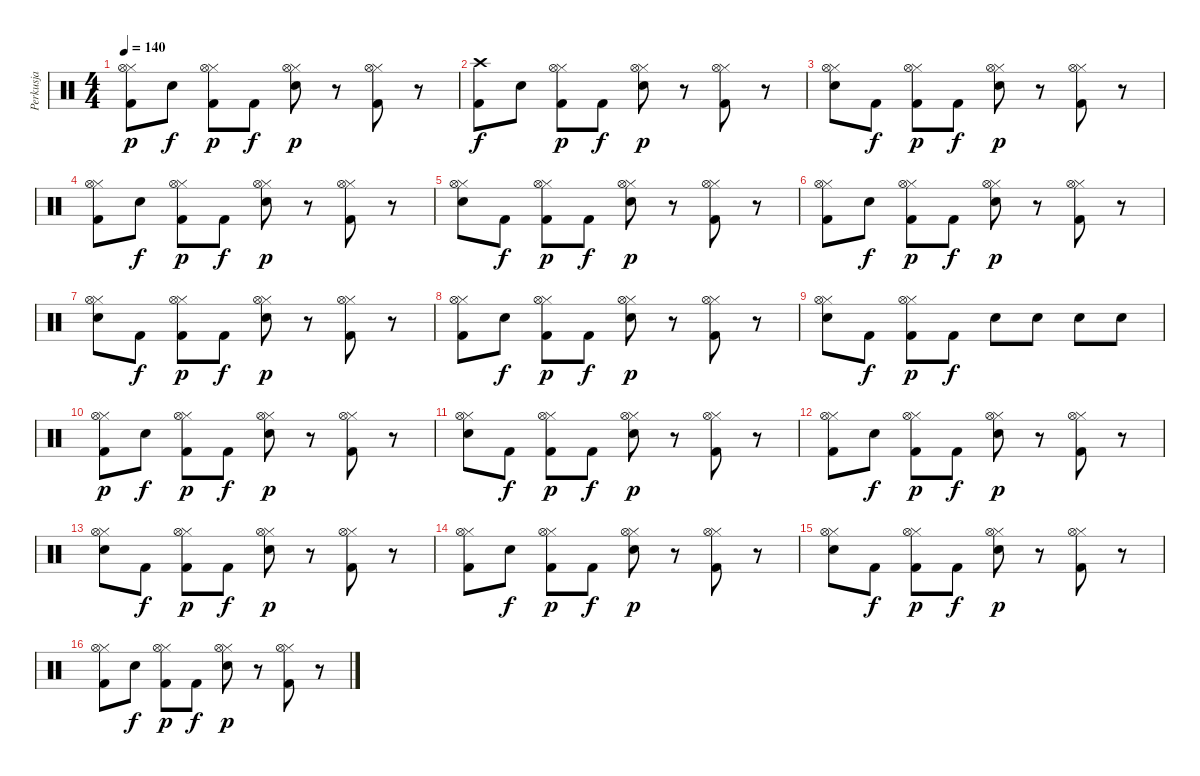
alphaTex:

\track ("Perkusja" "Perkusja") {instrument percussion}
\staff {score}
\articulation defaults
\ts (4 4)
\tempo 140
\clef neutral
\ks c
("Kick (hit) 2" "Hi-Hat (closed)" "Hi-Hat (open)").8{dy p} "Electric Snare (hit)".8{dy f} ("Kick (hit) 2" "Hi-Hat (closed)" "Hi-Hat (open)").8{dy p} "Kick (hit) 2".8{dy f} ("Electric Snare (hit)" "Hi-Hat (closed)" "Hi-Hat (open)").8{dy p} r.8 ("Kick (hit) 2" "Hi-Hat (closed)" "Hi-Hat (open)").8 r.8 |
("Kick (hit) 2" "Crash high (hit)").8{dy f} "Electric Snare (hit)".8 ("Kick (hit) 2" "Hi-Hat (closed)" "Hi-Hat (open)").8{dy p} "Kick (hit) 2".8{dy f} ("Electric Snare (hit)" "Hi-Hat (closed)" "Hi-Hat (open)").8{dy p} r.8 ("Kick (hit) 2" "Hi-Hat (closed)" "Hi-Hat (open)").8 r.8 |
("Electric Snare (hit)" "Hi-Hat (closed)" "Hi-Hat (open)").8 "Kick (hit) 2".8{dy f} ("Kick (hit) 2" "Hi-Hat (closed)" "Hi-Hat (open)").8{dy p} "Kick (hit) 2".8{dy f} ("Electric Snare (hit)" "Hi-Hat (closed)" "Hi-Hat (open)").8{dy p} r.8 ("Kick (hit) 2" "Hi-Hat (closed)" "Hi-Hat (open)").8 r.8 |
("Kick (hit) 2" "Hi-Hat (closed)" "Hi-Hat (open)").8 "Electric Snare (hit)".8{dy f} ("Kick (hit) 2" "Hi-Hat (closed)" "Hi-Hat (open)").8{dy p} "Kick (hit) 2".8{dy f} ("Electric Snare (hit)" "Hi-Hat (closed)" "Hi-Hat (open)").8{dy p} r.8 ("Kick (hit) 2" "Hi-Hat (closed)" "Hi-Hat (open)").8 r.8 |
("Electric Snare (hit)" "Hi-Hat (closed)" "Hi-Hat (open)").8 "Kick (hit) 2".8{dy f} ("Kick (hit) 2" "Hi-Hat (closed)" "Hi-Hat (open)").8{dy p} "Kick (hit) 2".8{dy f} ("Electric Snare (hit)" "Hi-Hat (closed)" "Hi-Hat (open)").8{dy p} r.8 ("Kick (hit) 2" "Hi-Hat (closed)" "Hi-Hat (open)").8 r.8 |
("Kick (hit) 2" "Hi-Hat (closed)" "Hi-Hat (open)").8 "Electric Snare (hit)".8{dy f} ("Kick (hit) 2" "Hi-Hat (closed)" "Hi-Hat (open)").8{dy p} "Kick (hit) 2".8{dy f} ("Electric Snare (hit)" "Hi-Hat (closed)" "Hi-Hat (open)").8{dy p} r.8 ("Kick (hit) 2" "Hi-Hat (closed)" "Hi-Hat (open)").8 r.8 |
("Electric Snare (hit)" "Hi-Hat (closed)" "Hi-Hat (open)").8 "Kick (hit) 2".8{dy f} ("Kick (hit) 2" "Hi-Hat (closed)" "Hi-Hat (open)").8{dy p} "Kick (hit) 2".8{dy f} ("Electric Snare (hit)" "Hi-Hat (closed)" "Hi-Hat (open)").8{dy p} r.8 ("Kick (hit) 2" "Hi-Hat (closed)" "Hi-Hat (open)").8 r.8 |
("Kick (hit) 2" "Hi-Hat (closed)" "Hi-Hat (open)").8 "Electric Snare (hit)".8{dy f} ("Kick (hit) 2" "Hi-Hat (closed)" "Hi-Hat (open)").8{dy p} "Kick (hit) 2".8{dy f} ("Electric Snare (hit)" "Hi-Hat (closed)" "Hi-Hat (open)").8{dy p} r.8 ("Kick (hit) 2" "Hi-Hat (closed)" "Hi-Hat (open)").8 r.8 |
("Electric Snare (hit)" "Hi-Hat (closed)" "Hi-Hat (open)").8 "Kick (hit) 2".8{dy f} ("Kick (hit) 2" "Hi-Hat (closed)" "Hi-Hat (open)").8{dy p} "Kick (hit) 2".8{dy f} "Electric Snare (hit)".8 "Electric Snare (hit)".8 "Electric Snare (hit)".8 "Electric Snare (hit)".8 |
("Kick (hit) 2" "Hi-Hat (closed)" "Hi-Hat (open)").8{dy p} "Electric Snare (hit)".8{dy f} ("Kick (hit) 2" "Hi-Hat (closed)" "Hi-Hat (open)").8{dy p} "Kick (hit) 2".8{dy f} ("Electric Snare (hit)" "Hi-Hat (closed)" "Hi-Hat (open)").8{dy p} r.8 ("Kick (hit) 2" "Hi-Hat (closed)" "Hi-Hat (open)").8 r.8 |
("Electric Snare (hit)" "Hi-Hat (closed)" "Hi-Hat (open)").8 "Kick (hit) 2".8{dy f} ("Kick (hit) 2" "Hi-Hat (closed)" "Hi-Hat (open)").8{dy p} "Kick (hit) 2".8{dy f} ("Electric Snare (hit)" "Hi-Hat (closed)" "Hi-Hat (open)").8{dy p} r.8 ("Kick (hit) 2" "Hi-Hat (closed)" "Hi-Hat (open)").8 r.8 |
("Kick (hit) 2" "Hi-Hat (closed)" "Hi-Hat (open)").8 "Electric Snare (hit)".8{dy f} ("Kick (hit) 2" "Hi-Hat (closed)" "Hi-Hat (open)").8{dy p} "Kick (hit) 2".8{dy f} ("Electric Snare (hit)" "Hi-Hat (closed)" "Hi-Hat (open)").8{dy p} r.8 ("Kick (hit) 2" "Hi-Hat (closed)" "Hi-Hat (open)").8 r.8 |
("Electric Snare (hit)" "Hi-Hat (closed)" "Hi-Hat (open)").8 "Kick (hit) 2".8{dy f} ("Kick (hit) 2" "Hi-Hat (closed)" "Hi-Hat (open)").8{dy p} "Kick (hit) 2".8{dy f} ("Electric Snare (hit)" "Hi-Hat (closed)" "Hi-Hat (open)").8{dy p} r.8 ("Kick (hit) 2" "Hi-Hat (closed)" "Hi-Hat (open)").8 r.8 |
("Kick (hit) 2" "Hi-Hat (closed)" "Hi-Hat (open)").8 "Electric Snare (hit)".8{dy f} ("Kick (hit) 2" "Hi-Hat (closed)" "Hi-Hat (open)").8{dy p} "Kick (hit) 2".8{dy f} ("Electric Snare (hit)" "Hi-Hat (closed)" "Hi-Hat (open)").8{dy p} r.8 ("Kick (hit) 2" "Hi-Hat (closed)" "Hi-Hat (open)").8 r.8 |
("Electric Snare (hit)" "Hi-Hat (closed)" "Hi-Hat (open)").8 "Kick (hit) 2".8{dy f} ("Kick (hit) 2" "Hi-Hat (closed)" "Hi-Hat (open)").8{dy p} "Kick (hit) 2".8{dy f} ("Electric Snare (hit)" "Hi-Hat (closed)" "Hi-Hat (open)").8{dy p} r.8 ("Kick (hit) 2" "Hi-Hat (closed)" "Hi-Hat (open)").8 r.8 |
("Kick (hit) 2" "Hi-Hat (closed)" "Hi-Hat (open)").8 "Electric Snare (hit)".8{dy f} ("Kick (hit) 2" "Hi-Hat (closed)" "Hi-Hat (open)").8{dy p} "Kick (hit) 2".8{dy f} ("Electric Snare (hit)" "Hi-Hat (closed)" "Hi-Hat (open)").8{dy p} r.8 ("Kick (hit) 2" "Hi-Hat (closed)" "Hi-Hat (open)").8 r.8
